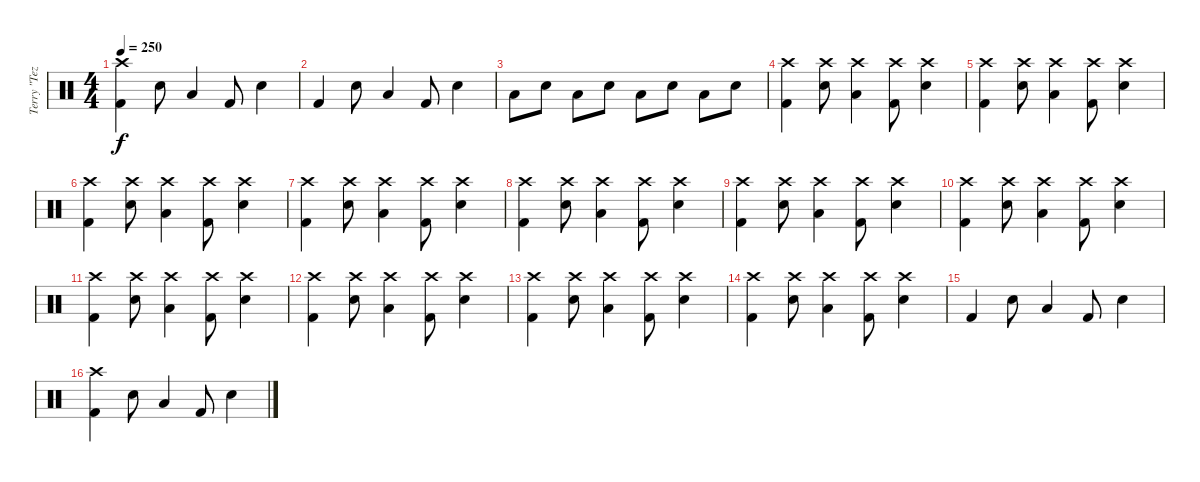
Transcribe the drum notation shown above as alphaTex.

\track ("Terry \"Tezz\" Roberts" "Terry \"Tez") {instrument percussion}
\staff {score}
\articulation defaults
\ts (4 4)
\tempo 250
\clef neutral
\ks c
("Kick (hit) 2" "Crash high (hit)").4{dy f} "Snare (hit) 2".8 "Low Tom (hit)".4 "Kick (hit) 2".8 "Snare (hit) 2".4 |
"Kick (hit) 2".4 "Snare (hit) 2".8 "Low Tom (hit)".4 "Kick (hit) 2".8 "Snare (hit) 2".4 |
"Low Tom (hit)".8 "Snare (hit) 2".8 "Low Tom (hit)".8 "Snare (hit) 2".8 "Low Tom (hit)".8 "Snare (hit) 2".8 "Low Tom (hit)".8 "Snare (hit) 2".8 |
("Kick (hit) 2" "Crash high (hit)").4 ("Snare (hit) 2" "Crash high (hit)").8 ("Low Tom (hit)" "Crash high (hit)").4 ("Kick (hit) 2" "Crash high (hit)").8 ("Snare (hit) 2" "Crash high (hit)").4 |
("Kick (hit) 2" "Crash high (hit)").4 ("Snare (hit) 2" "Crash high (hit)").8 ("Low Tom (hit)" "Crash high (hit)").4 ("Kick (hit) 2" "Crash high (hit)").8 ("Snare (hit) 2" "Crash high (hit)").4 |
("Kick (hit) 2" "Crash high (hit)").4 ("Snare (hit) 2" "Crash high (hit)").8 ("Low Tom (hit)" "Crash high (hit)").4 ("Kick (hit) 2" "Crash high (hit)").8 ("Snare (hit) 2" "Crash high (hit)").4 |
("Kick (hit) 2" "Crash high (hit)").4 ("Snare (hit) 2" "Crash high (hit)").8 ("Low Tom (hit)" "Crash high (hit)").4 ("Kick (hit) 2" "Crash high (hit)").8 ("Snare (hit) 2" "Crash high (hit)").4 |
("Kick (hit) 2" "Crash high (hit)").4 ("Snare (hit) 2" "Crash high (hit)").8 ("Low Tom (hit)" "Crash high (hit)").4 ("Kick (hit) 2" "Crash high (hit)").8 ("Snare (hit) 2" "Crash high (hit)").4 |
("Kick (hit) 2" "Crash high (hit)").4 ("Snare (hit) 2" "Crash high (hit)").8 ("Low Tom (hit)" "Crash high (hit)").4 ("Kick (hit) 2" "Crash high (hit)").8 ("Snare (hit) 2" "Crash high (hit)").4 |
("Kick (hit) 2" "Crash high (hit)").4 ("Snare (hit) 2" "Crash high (hit)").8 ("Low Tom (hit)" "Crash high (hit)").4 ("Kick (hit) 2" "Crash high (hit)").8 ("Snare (hit) 2" "Crash high (hit)").4 |
("Kick (hit) 2" "Crash high (hit)").4 ("Snare (hit) 2" "Crash high (hit)").8 ("Low Tom (hit)" "Crash high (hit)").4 ("Kick (hit) 2" "Crash high (hit)").8 ("Snare (hit) 2" "Crash high (hit)").4 |
("Kick (hit) 2" "Crash high (hit)").4 ("Snare (hit) 2" "Crash high (hit)").8 ("Low Tom (hit)" "Crash high (hit)").4 ("Kick (hit) 2" "Crash high (hit)").8 ("Snare (hit) 2" "Crash high (hit)").4 |
("Kick (hit) 2" "Crash high (hit)").4 ("Snare (hit) 2" "Crash high (hit)").8 ("Low Tom (hit)" "Crash high (hit)").4 ("Kick (hit) 2" "Crash high (hit)").8 ("Snare (hit) 2" "Crash high (hit)").4 |
("Kick (hit) 2" "Crash high (hit)").4 ("Snare (hit) 2" "Crash high (hit)").8 ("Low Tom (hit)" "Crash high (hit)").4 ("Kick (hit) 2" "Crash high (hit)").8 ("Snare (hit) 2" "Crash high (hit)").4 |
"Kick (hit) 2".4 "Snare (hit) 2".8 "Low Tom (hit)".4 "Kick (hit) 2".8 "Snare (hit) 2".4 |
("Kick (hit) 2" "Crash high (hit)").4 "Snare (hit) 2".8 "Low Tom (hit)".4 "Kick (hit) 2".8 "Snare (hit) 2".4
